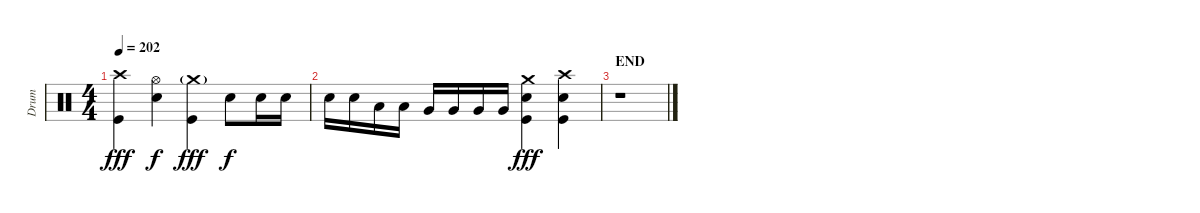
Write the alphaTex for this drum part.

\track ("Drum" "Drum") {instrument percussion}
\staff {score}
\articulation defaults
\ts (4 4)
\tempo 202
\clef neutral
\ks c
("Crash high (hit)" "Kick (hit)").4{dy fff} ("Hi-Hat (open)" "Electric Snare (hit)").4{dy f} ("Crash medium (hit)"{g} "Kick (hit)").4{dy fff} "Electric Snare (hit)".8{dy f} "Electric Snare (hit)".16 "Electric Snare (hit)".16 |
"Electric Snare (hit)".16 "Electric Snare (hit)".16 "Low Tom (hit)".16 "Low Tom (hit)".16 "Very Low Tom (hit)".16 "Very Low Tom (hit)".16 "Very Low Tom (hit)".16 "Very Low Tom (hit)".16 ("Crash medium (hit)" "Electric Snare (hit)" "Kick (hit)").4{dy fff} ("Crash high (hit)" "Electric Snare (hit)" "Kick (hit)").4 |
\section ("" "END")
r.1
